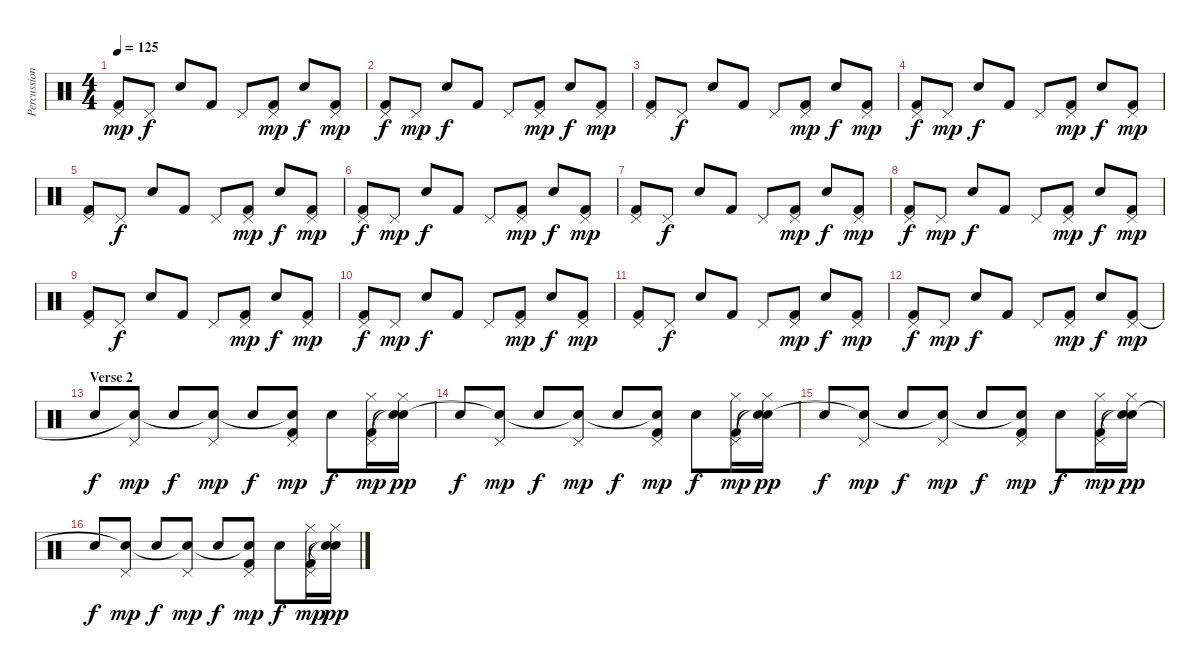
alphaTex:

\track ("Percussion" "Percussion") {instrument percussion}
\staff {score}
\articulation defaults
\ts (4 4)
\tempo 125
\clef neutral
\ks c
("Pedal Hi-Hat (hit)" "Kick (hit) 2").8{dy mp} "Pedal Hi-Hat (hit)".8{dy f} "Electric Snare (hit)".8 "Kick (hit) 2".8 "Pedal Hi-Hat (hit)".8 ("Pedal Hi-Hat (hit)" "Kick (hit) 2").8{dy mp} "Electric Snare (hit)".8{dy f} ("Pedal Hi-Hat (hit)" "Kick (hit) 2").8{dy mp} |
("Pedal Hi-Hat (hit)" "Kick (hit) 2").8{dy f} "Pedal Hi-Hat (hit)".8{dy mp} "Electric Snare (hit)".8{dy f} "Kick (hit) 2".8 "Pedal Hi-Hat (hit)".8 ("Pedal Hi-Hat (hit)" "Kick (hit) 2").8{dy mp} "Electric Snare (hit)".8{dy f} ("Pedal Hi-Hat (hit)" "Kick (hit) 2").8{dy mp} |
("Pedal Hi-Hat (hit)" "Kick (hit) 2").8 "Pedal Hi-Hat (hit)".8{dy f} "Electric Snare (hit)".8 "Kick (hit) 2".8 "Pedal Hi-Hat (hit)".8 ("Pedal Hi-Hat (hit)" "Kick (hit) 2").8{dy mp} "Electric Snare (hit)".8{dy f} ("Pedal Hi-Hat (hit)" "Kick (hit) 2").8{dy mp} |
("Pedal Hi-Hat (hit)" "Kick (hit) 2").8{dy f} "Pedal Hi-Hat (hit)".8{dy mp} "Electric Snare (hit)".8{dy f} "Kick (hit) 2".8 "Pedal Hi-Hat (hit)".8 ("Pedal Hi-Hat (hit)" "Kick (hit) 2").8{dy mp} "Electric Snare (hit)".8{dy f} ("Pedal Hi-Hat (hit)" "Kick (hit) 2").8{dy mp} |
("Pedal Hi-Hat (hit)" "Kick (hit) 2").8 "Pedal Hi-Hat (hit)".8{dy f} "Electric Snare (hit)".8 "Kick (hit) 2".8 "Pedal Hi-Hat (hit)".8 ("Pedal Hi-Hat (hit)" "Kick (hit) 2").8{dy mp} "Electric Snare (hit)".8{dy f} ("Pedal Hi-Hat (hit)" "Kick (hit) 2").8{dy mp} |
("Pedal Hi-Hat (hit)" "Kick (hit) 2").8{dy f} "Pedal Hi-Hat (hit)".8{dy mp} "Electric Snare (hit)".8{dy f} "Kick (hit) 2".8 "Pedal Hi-Hat (hit)".8 ("Pedal Hi-Hat (hit)" "Kick (hit) 2").8{dy mp} "Electric Snare (hit)".8{dy f} ("Pedal Hi-Hat (hit)" "Kick (hit) 2").8{dy mp} |
("Pedal Hi-Hat (hit)" "Kick (hit) 2").8 "Pedal Hi-Hat (hit)".8{dy f} "Electric Snare (hit)".8 "Kick (hit) 2".8 "Pedal Hi-Hat (hit)".8 ("Pedal Hi-Hat (hit)" "Kick (hit) 2").8{dy mp} "Electric Snare (hit)".8{dy f} ("Pedal Hi-Hat (hit)" "Kick (hit) 2").8{dy mp} |
("Pedal Hi-Hat (hit)" "Kick (hit) 2").8{dy f} "Pedal Hi-Hat (hit)".8{dy mp} "Electric Snare (hit)".8{dy f} "Kick (hit) 2".8 "Pedal Hi-Hat (hit)".8 ("Pedal Hi-Hat (hit)" "Kick (hit) 2").8{dy mp} "Electric Snare (hit)".8{dy f} ("Pedal Hi-Hat (hit)" "Kick (hit) 2").8{dy mp} |
("Pedal Hi-Hat (hit)" "Kick (hit) 2").8 "Pedal Hi-Hat (hit)".8{dy f} "Electric Snare (hit)".8 "Kick (hit) 2".8 "Pedal Hi-Hat (hit)".8 ("Pedal Hi-Hat (hit)" "Kick (hit) 2").8{dy mp} "Electric Snare (hit)".8{dy f} ("Pedal Hi-Hat (hit)" "Kick (hit) 2").8{dy mp} |
("Pedal Hi-Hat (hit)" "Kick (hit) 2").8{dy f} "Pedal Hi-Hat (hit)".8{dy mp} "Electric Snare (hit)".8{dy f} "Kick (hit) 2".8 "Pedal Hi-Hat (hit)".8 ("Pedal Hi-Hat (hit)" "Kick (hit) 2").8{dy mp} "Electric Snare (hit)".8{dy f} ("Pedal Hi-Hat (hit)" "Kick (hit) 2").8{dy mp} |
("Pedal Hi-Hat (hit)" "Kick (hit) 2").8 "Pedal Hi-Hat (hit)".8{dy f} "Electric Snare (hit)".8 "Kick (hit) 2".8 "Pedal Hi-Hat (hit)".8 ("Pedal Hi-Hat (hit)" "Kick (hit) 2").8{dy mp} "Electric Snare (hit)".8{dy f} ("Pedal Hi-Hat (hit)" "Kick (hit) 2").8{dy mp} |
("Pedal Hi-Hat (hit)" "Kick (hit) 2").8{dy f} "Pedal Hi-Hat (hit)".8{dy mp} "Electric Snare (hit)".8{dy f} "Kick (hit) 2".8 "Pedal Hi-Hat (hit)".8 ("Pedal Hi-Hat (hit)" "Kick (hit) 2").8{dy mp} "Electric Snare (hit)".8{dy f} ("Pedal Hi-Hat (hit)" "Kick (hit) 2").8{dy mp} |
\section ("" "Verse 2")
"Electric Snare (hit)".8{dy f} ("Pedal Hi-Hat (hit)" "Snare (hit)"{t}).8{dy mp} "Electric Snare (hit)".8{dy f} ("Pedal Hi-Hat (hit)" "Snare (hit)"{t}).8{dy mp} "Electric Snare (hit)".8{dy f} ("Pedal Hi-Hat (hit)" "Snare (hit)"{t} "Kick (hit) 2").8{dy mp} "Electric Snare (hit)".8{dy f} ("Hi-Hat (closed)" "Pedal Hi-Hat (hit)" "Kick (hit) 2").16{dy mp} ("Hi-Hat (closed)" "Snare (hit)"{t} "Snare (hit)"{t}).16{dy pp} |
"Electric Snare (hit)".8{dy f} ("Pedal Hi-Hat (hit)" "Snare (hit)"{t}).8{dy mp} "Electric Snare (hit)".8{dy f} ("Pedal Hi-Hat (hit)" "Snare (hit)"{t}).8{dy mp} "Electric Snare (hit)".8{dy f} ("Pedal Hi-Hat (hit)" "Snare (hit)"{t} "Kick (hit) 2").8{dy mp} "Electric Snare (hit)".8{dy f} ("Hi-Hat (closed)" "Pedal Hi-Hat (hit)" "Kick (hit) 2").16{dy mp} ("Hi-Hat (closed)" "Snare (hit)"{t} "Snare (hit)"{t}).16{dy pp} |
"Electric Snare (hit)".8{dy f} ("Pedal Hi-Hat (hit)" "Snare (hit)"{t}).8{dy mp} "Electric Snare (hit)".8{dy f} ("Pedal Hi-Hat (hit)" "Snare (hit)"{t}).8{dy mp} "Electric Snare (hit)".8{dy f} ("Pedal Hi-Hat (hit)" "Snare (hit)"{t} "Kick (hit) 2").8{dy mp} "Electric Snare (hit)".8{dy f} ("Hi-Hat (closed)" "Pedal Hi-Hat (hit)" "Kick (hit) 2").16{dy mp} ("Hi-Hat (closed)" "Snare (hit)"{t} "Snare (hit)"{t}).16{dy pp} |
"Electric Snare (hit)".8{dy f} ("Pedal Hi-Hat (hit)" "Snare (hit)"{t}).8{dy mp} "Electric Snare (hit)".8{dy f} ("Pedal Hi-Hat (hit)" "Snare (hit)"{t}).8{dy mp} "Electric Snare (hit)".8{dy f} ("Pedal Hi-Hat (hit)" "Snare (hit)"{t} "Kick (hit) 2").8{dy mp} "Electric Snare (hit)".8{dy f} ("Hi-Hat (closed)" "Pedal Hi-Hat (hit)" "Kick (hit) 2").16{dy mp} ("Hi-Hat (closed)" "Snare (hit)"{t} "Snare (hit)"{t}).16{dy pp}
